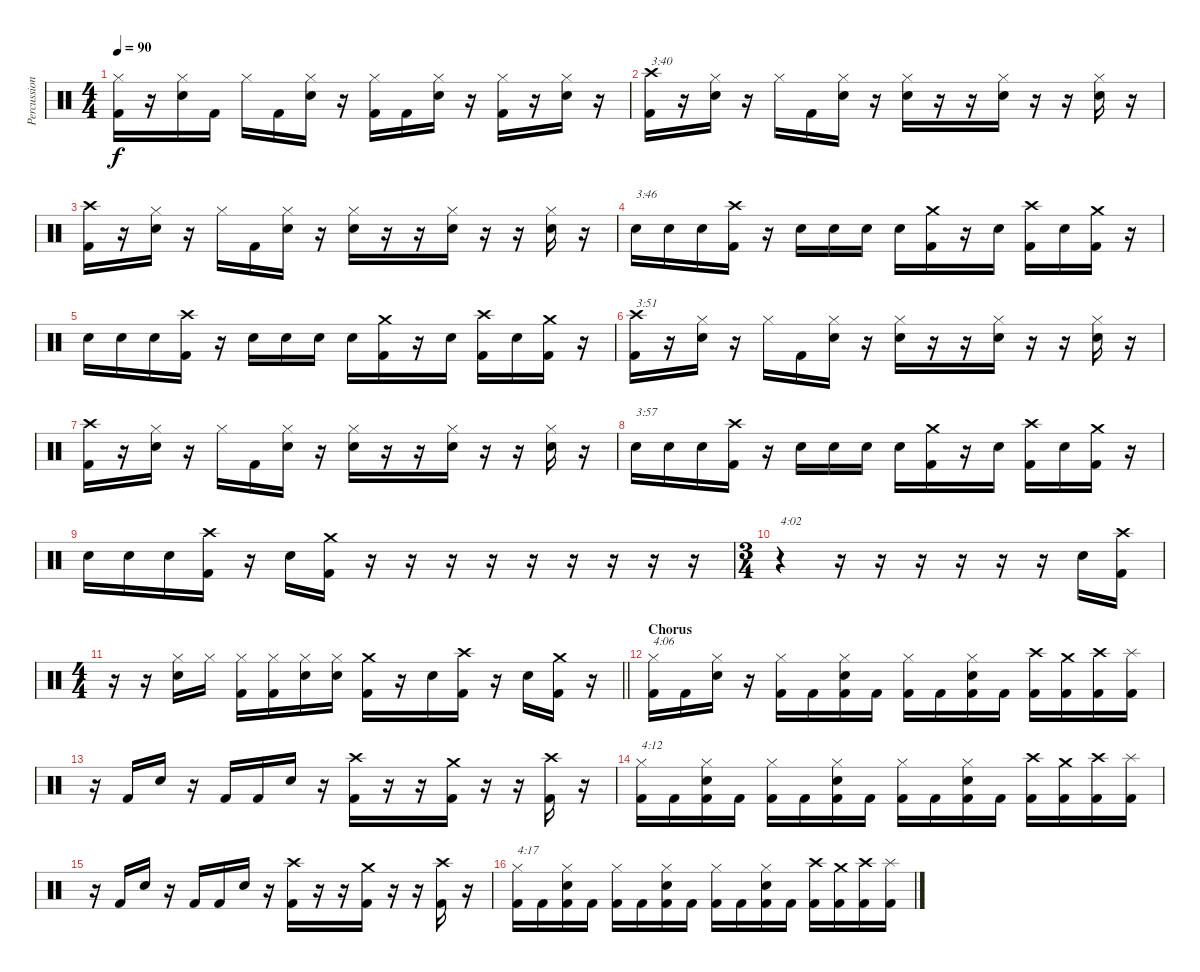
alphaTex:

\track ("Percussion" "Percussion") {instrument percussion}
\staff {score}
\articulation defaults
\ts (4 4)
\tempo 90
\clef neutral
\ks c
("Hi-Hat (closed)" "Kick (hit) 2").16{dy f} r.16 ("Hi-Hat (closed)" "Snare (hit) 2").16 "Kick (hit) 2".16 "Hi-Hat (closed)".16 "Kick (hit) 2".16 ("Hi-Hat (closed)" "Snare (hit) 2").16 r.16 ("Hi-Hat (closed)" "Kick (hit) 2").16 "Kick (hit) 2".16 ("Hi-Hat (closed)" "Snare (hit) 2").16 r.16 ("Hi-Hat (closed)" "Kick (hit) 2").16 r.16 ("Hi-Hat (closed)" "Snare (hit) 2").16 r.16 |
("Crash high (hit)" "Kick (hit) 2").16{txt "3:40"} r.16 ("Hi-Hat (closed)" "Snare (hit) 2").16 r.16 "Hi-Hat (closed)".16 "Kick (hit) 2".16 ("Hi-Hat (closed)" "Snare (hit) 2").16 r.16 ("Hi-Hat (closed)" "Snare (hit) 2").16 r.16 r.16 ("Hi-Hat (closed)" "Snare (hit) 2").16 r.16 r.16 ("Hi-Hat (closed)" "Snare (hit) 2").16 r.16 |
("Crash high (hit)" "Kick (hit) 2").16 r.16 ("Hi-Hat (closed)" "Snare (hit) 2").16 r.16 "Hi-Hat (closed)".16 "Kick (hit) 2".16 ("Hi-Hat (closed)" "Snare (hit) 2").16 r.16 ("Hi-Hat (closed)" "Snare (hit) 2").16 r.16 r.16 ("Hi-Hat (closed)" "Snare (hit) 2").16 r.16 r.16 ("Hi-Hat (closed)" "Snare (hit) 2").16 r.16 |
"Snare (hit) 2".16{txt "3:46"} "Snare (hit) 2".16 "Snare (hit) 2".16 ("Crash high (hit)" "Kick (hit) 2").16 r.16 "Snare (hit) 2".16 "Snare (hit) 2".16 "Snare (hit) 2".16 "Snare (hit) 2".16 ("Crash medium (hit)" "Kick (hit) 2").16 r.16 "Snare (hit) 2".16 ("Crash high (hit)" "Kick (hit) 2").16 "Snare (hit) 2".16 ("Crash medium (hit)" "Kick (hit) 2").16 r.16 |
"Snare (hit) 2".16 "Snare (hit) 2".16 "Snare (hit) 2".16 ("Crash high (hit)" "Kick (hit) 2").16 r.16 "Snare (hit) 2".16 "Snare (hit) 2".16 "Snare (hit) 2".16 "Snare (hit) 2".16 ("Crash medium (hit)" "Kick (hit) 2").16 r.16 "Snare (hit) 2".16 ("Crash high (hit)" "Kick (hit) 2").16 "Snare (hit) 2".16 ("Crash medium (hit)" "Kick (hit) 2").16 r.16 |
("Crash high (hit)" "Kick (hit) 2").16{txt "3:51"} r.16 ("Hi-Hat (closed)" "Snare (hit) 2").16 r.16 "Hi-Hat (closed)".16 "Kick (hit) 2".16 ("Hi-Hat (closed)" "Snare (hit) 2").16 r.16 ("Hi-Hat (closed)" "Snare (hit) 2").16 r.16 r.16 ("Hi-Hat (closed)" "Snare (hit) 2").16 r.16 r.16 ("Hi-Hat (closed)" "Snare (hit) 2").16 r.16 |
("Crash high (hit)" "Kick (hit) 2").16 r.16 ("Hi-Hat (closed)" "Snare (hit) 2").16 r.16 "Hi-Hat (closed)".16 "Kick (hit) 2".16 ("Hi-Hat (closed)" "Snare (hit) 2").16 r.16 ("Hi-Hat (closed)" "Snare (hit) 2").16 r.16 r.16 ("Hi-Hat (closed)" "Snare (hit) 2").16 r.16 r.16 ("Hi-Hat (closed)" "Snare (hit) 2").16 r.16 |
"Snare (hit) 2".16{txt "3:57"} "Snare (hit) 2".16 "Snare (hit) 2".16 ("Crash high (hit)" "Kick (hit) 2").16 r.16 "Snare (hit) 2".16 "Snare (hit) 2".16 "Snare (hit) 2".16 "Snare (hit) 2".16 ("Crash medium (hit)" "Kick (hit) 2").16 r.16 "Snare (hit) 2".16 ("Crash high (hit)" "Kick (hit) 2").16 "Snare (hit) 2".16 ("Crash medium (hit)" "Kick (hit) 2").16 r.16 |
"Snare (hit) 2".16 "Snare (hit) 2".16 "Snare (hit) 2".16 ("Crash high (hit)" "Kick (hit) 2").16 r.16 "Snare (hit) 2".16 ("Crash medium (hit)" "Kick (hit) 2").16 r.16 r.16 r.16 r.16 r.16 r.16 r.16 r.16 r.16 |
\ts (3 4)
r.4{txt "4:02"} r.16 r.16 r.16 r.16 r.16 r.16 "Snare (hit) 2".16 ("Crash high (hit)" "Kick (hit) 2").16 |
\ts (4 4)
\barLineRight lightlight
r.16 r.16 ("Hi-Hat (closed)" "Snare (hit) 2").16 "Hi-Hat (closed)".16 ("Hi-Hat (closed)" "Kick (hit) 2").16 ("Hi-Hat (closed)" "Kick (hit) 2").16 ("Hi-Hat (closed)" "Snare (hit) 2").16 ("Hi-Hat (closed)" "Snare (hit) 2").16 ("Crash medium (hit)" "Kick (hit) 2").16 r.16 "Snare (hit) 2".16 ("Crash high (hit)" "Kick (hit) 2").16 r.16 "Snare (hit) 2".16 ("Crash medium (hit)" "Kick (hit) 2").16 r.16 |
\section ("" "Chorus")
("Hi-Hat (closed)" "Kick (hit) 2").16{txt "4:06"} "Kick (hit) 2".16 ("Hi-Hat (closed)" "Snare (hit) 2").16 r.16 ("Hi-Hat (closed)" "Kick (hit) 2").16 "Kick (hit) 2".16 ("Hi-Hat (closed)" "Snare (hit) 2" "Kick (hit) 2").16 "Kick (hit) 2".16 ("Hi-Hat (closed)" "Kick (hit) 2").16 "Kick (hit) 2".16 ("Hi-Hat (closed)" "Snare (hit) 2" "Kick (hit) 2").16 "Kick (hit) 2".16 ("Crash high (hit)" "Kick (hit) 2").16 ("Crash medium (hit)" "Kick (hit) 2").16 ("Crash high (hit)" "Kick (hit) 2").16 ("Splash (hit)" "Kick (hit) 2").16 |
r.16 "Kick (hit) 2".16 "Snare (hit) 2".16 r.16 "Kick (hit) 2".16 "Kick (hit) 2".16 "Snare (hit) 2".16 r.16 ("Crash high (hit)" "Kick (hit) 2").16 r.16 r.16 ("Crash medium (hit)" "Kick (hit) 2").16 r.16 r.16 ("Crash high (hit)" "Kick (hit) 2").16 r.16 |
("Hi-Hat (closed)" "Kick (hit) 2").16{txt "4:12"} "Kick (hit) 2".16 ("Hi-Hat (closed)" "Snare (hit) 2" "Kick (hit) 2").16 "Kick (hit) 2".16 ("Hi-Hat (closed)" "Kick (hit) 2").16 "Kick (hit) 2".16 ("Hi-Hat (closed)" "Snare (hit) 2" "Kick (hit) 2").16 "Kick (hit) 2".16 ("Hi-Hat (closed)" "Kick (hit) 2").16 "Kick (hit) 2".16 ("Hi-Hat (closed)" "Snare (hit) 2" "Kick (hit) 2").16 "Kick (hit) 2".16 ("Crash high (hit)" "Kick (hit) 2").16 ("Crash medium (hit)" "Kick (hit) 2").16 ("Crash high (hit)" "Kick (hit) 2").16 ("Splash (hit)" "Kick (hit) 2").16 |
r.16 "Kick (hit) 2".16 "Snare (hit) 2".16 r.16 "Kick (hit) 2".16 "Kick (hit) 2".16 "Snare (hit) 2".16 r.16 ("Crash high (hit)" "Kick (hit) 2").16 r.16 r.16 ("Crash medium (hit)" "Kick (hit) 2").16 r.16 r.16 ("Crash high (hit)" "Kick (hit) 2").16 r.16 |
("Hi-Hat (closed)" "Kick (hit) 2").16{txt "4:17"} "Kick (hit) 2".16 ("Hi-Hat (closed)" "Snare (hit) 2" "Kick (hit) 2").16 "Kick (hit) 2".16 ("Hi-Hat (closed)" "Kick (hit) 2").16 "Kick (hit) 2".16 ("Hi-Hat (closed)" "Snare (hit) 2" "Kick (hit) 2").16 "Kick (hit) 2".16 ("Hi-Hat (closed)" "Kick (hit) 2").16 "Kick (hit) 2".16 ("Hi-Hat (closed)" "Snare (hit) 2" "Kick (hit) 2").16 "Kick (hit) 2".16 ("Crash high (hit)" "Kick (hit) 2").16 ("Crash medium (hit)" "Kick (hit) 2").16 ("Crash high (hit)" "Kick (hit) 2").16 ("Splash (hit)" "Kick (hit) 2").16
